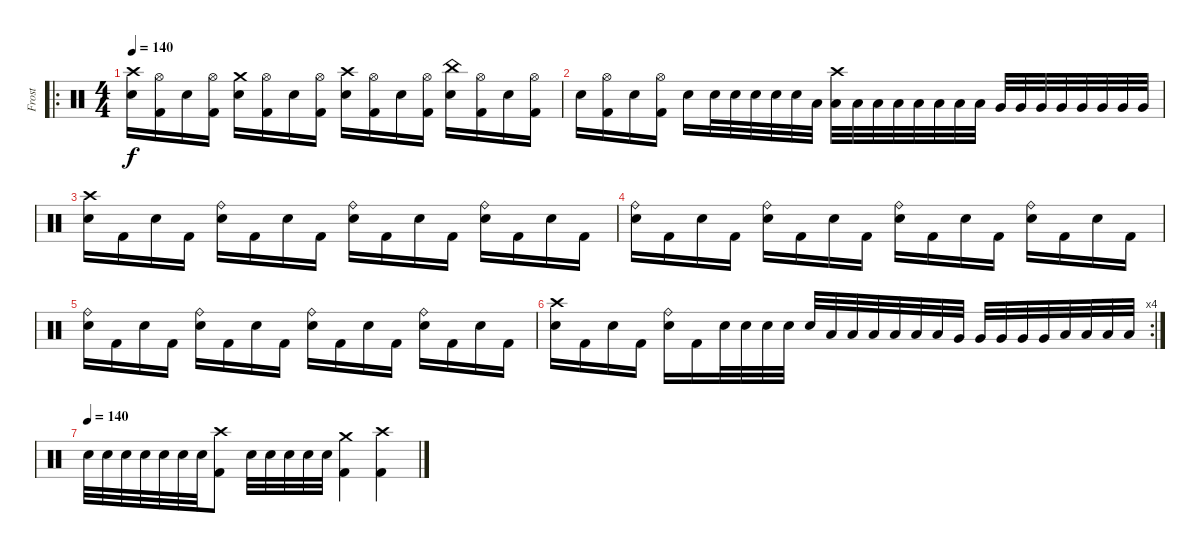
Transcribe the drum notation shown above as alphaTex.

\track ("Frost" "Frost") {instrument percussion}
\staff {score}
\articulation defaults
\ro
\ts (4 4)
\tempo 140
\clef neutral
\ks c
("Crash high (hit)" "Snare (hit) 2").16{dy f} ("Hi-Hat (open)" "Kick (hit) 2").16 "Snare (hit) 2".16 ("Hi-Hat (open)" "Kick (hit) 2").16 ("Crash medium (hit)" "Snare (hit) 2").16 ("Hi-Hat (open)" "Kick (hit) 2").16 "Snare (hit) 2".16 ("Hi-Hat (open)" "Kick (hit) 2").16 ("Crash high (hit)" "Snare (hit) 2").16 ("Hi-Hat (open)" "Kick (hit) 2").16 "Snare (hit) 2".16 ("Hi-Hat (open)" "Kick (hit) 2").16 ("China (hit)" "Snare (hit) 2").16 ("Hi-Hat (open)" "Kick (hit) 2").16 "Snare (hit) 2".16 ("Hi-Hat (open)" "Kick (hit) 2").16 |
"Snare (hit) 2".16 ("Hi-Hat (open)" "Kick (hit) 2").16 "Snare (hit) 2".16 ("Hi-Hat (open)" "Kick (hit) 2").16 "Snare (hit) 2".16 "Snare (hit) 2".32 "Snare (hit) 2".32 "Snare (hit) 2".32 "Snare (hit) 2".32 "Snare (hit) 2".32 "Low Tom (hit)".32 ("Crash high (hit)" "Low Tom (hit)").32 "Low Tom (hit)".32 "Low Tom (hit)".32 "Low Tom (hit)".32 "Low Tom (hit)".32 "Low Tom (hit)".32 "Low Tom (hit)".32 "Low Tom (hit)".32 "Very Low Tom (hit)".32 "Very Low Tom (hit)".32 "Very Low Tom (hit)".32 "Very Low Tom (hit)".32 "Very Low Tom (hit)".32 "Very Low Tom (hit)".32 "Very Low Tom (hit)".32 "Very Low Tom (hit)".32 |
("Crash high (hit)" "Snare (hit) 2").16 "Kick (hit) 2".16 "Snare (hit) 2".16 "Kick (hit) 2".16 ("Ride (bell)" "Snare (hit) 2").16 "Kick (hit) 2".16 "Snare (hit) 2".16 "Kick (hit) 2".16 ("Ride (bell)" "Snare (hit) 2").16 "Kick (hit) 2".16 "Snare (hit) 2".16 "Kick (hit) 2".16 ("Ride (bell)" "Snare (hit) 2").16 "Kick (hit) 2".16 "Snare (hit) 2".16 "Kick (hit) 2".16 |
("Ride (bell)" "Snare (hit) 2").16 "Kick (hit) 2".16 "Snare (hit) 2".16 "Kick (hit) 2".16 ("Ride (bell)" "Snare (hit) 2").16 "Kick (hit) 2".16 "Snare (hit) 2".16 "Kick (hit) 2".16 ("Ride (bell)" "Snare (hit) 2").16 "Kick (hit) 2".16 "Snare (hit) 2".16 "Kick (hit) 2".16 ("Ride (bell)" "Snare (hit) 2").16 "Kick (hit) 2".16 "Snare (hit) 2".16 "Kick (hit) 2".16 |
("Ride (bell)" "Snare (hit) 2").16 "Kick (hit) 2".16 "Snare (hit) 2".16 "Kick (hit) 2".16 ("Ride (bell)" "Snare (hit) 2").16 "Kick (hit) 2".16 "Snare (hit) 2".16 "Kick (hit) 2".16 ("Ride (bell)" "Snare (hit) 2").16 "Kick (hit) 2".16 "Snare (hit) 2".16 "Kick (hit) 2".16 ("Ride (bell)" "Snare (hit) 2").16 "Kick (hit) 2".16 "Snare (hit) 2".16 "Kick (hit) 2".16 |
\rc 4
("Crash high (hit)" "Snare (hit) 2").16 "Kick (hit) 2".16 "Snare (hit) 2".16 "Kick (hit) 2".16 ("Ride (bell)" "Snare (hit) 2").16 "Kick (hit) 2".16 "Snare (hit) 2".32 "Snare (hit) 2".32 "Snare (hit) 2".32 "Snare (hit) 2".32 "Snare (hit) 2".32 "Low Tom (hit)".32 "Low Tom (hit)".32 "Low Tom (hit)".32 "Low Tom (hit)".32 "Low Tom (hit)".32 "Low Tom (hit)".32 "Very Low Tom (hit)".32 "Very Low Tom (hit)".32 "Very Low Tom (hit)".32 "Very Low Tom (hit)".32 "Very Low Tom (hit)".32 "Low Floor Tom (hit)".32 "Low Floor Tom (hit)".32 "Low Floor Tom (hit)".32 "Low Floor Tom (hit)".32 |
\tempo (140)
"Snare (hit) 2".32 "Snare (hit) 2".32 "Snare (hit) 2".32 "Snare (hit) 2".32 "Snare (hit) 2".32 "Snare (hit) 2".32 "Snare (hit) 2".32 ("Crash high (hit)" "Kick (hit) 2").8 "Snare (hit) 2".32 "Snare (hit) 2".32 "Snare (hit) 2".32 "Snare (hit) 2".32 "Snare (hit) 2".32 ("Crash medium (hit)" "Kick (hit) 2").4 ("Crash high (hit)" "Kick (hit) 2").4
